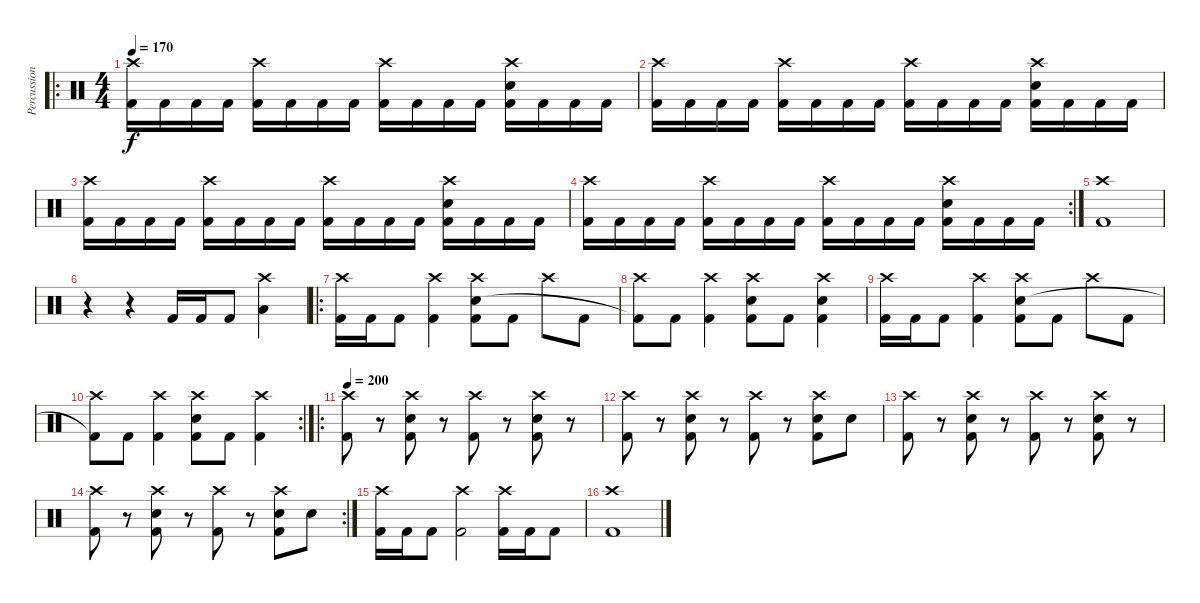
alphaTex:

\track ("Percussion" "Percussion") {instrument percussion}
\staff {score}
\articulation defaults
\ro
\ts (4 4)
\tempo 170
\clef neutral
\ks c
("Crash high (hit)" "Kick (hit) 2").16{dy f} "Kick (hit) 2".16 "Kick (hit) 2".16 "Kick (hit) 2".16 ("Crash high (hit)" "Kick (hit) 2").16 "Kick (hit) 2".16 "Kick (hit) 2".16 "Kick (hit) 2".16 ("Crash high (hit)" "Kick (hit) 2").16 "Kick (hit) 2".16 "Kick (hit) 2".16 "Kick (hit) 2".16 ("Crash high (hit)" "Electric Snare (hit)" "Kick (hit) 2").16 "Kick (hit) 2".16 "Kick (hit) 2".16 "Kick (hit) 2".16 |
("Crash high (hit)" "Kick (hit) 2").16 "Kick (hit) 2".16 "Kick (hit) 2".16 "Kick (hit) 2".16 ("Crash high (hit)" "Kick (hit) 2").16 "Kick (hit) 2".16 "Kick (hit) 2".16 "Kick (hit) 2".16 ("Crash high (hit)" "Kick (hit) 2").16 "Kick (hit) 2".16 "Kick (hit) 2".16 "Kick (hit) 2".16 ("Crash high (hit)" "Electric Snare (hit)" "Kick (hit) 2").16 "Kick (hit) 2".16 "Kick (hit) 2".16 "Kick (hit) 2".16 |
("Crash high (hit)" "Kick (hit) 2").16 "Kick (hit) 2".16 "Kick (hit) 2".16 "Kick (hit) 2".16 ("Crash high (hit)" "Kick (hit) 2").16 "Kick (hit) 2".16 "Kick (hit) 2".16 "Kick (hit) 2".16 ("Crash high (hit)" "Kick (hit) 2").16 "Kick (hit) 2".16 "Kick (hit) 2".16 "Kick (hit) 2".16 ("Crash high (hit)" "Electric Snare (hit)" "Kick (hit) 2").16 "Kick (hit) 2".16 "Kick (hit) 2".16 "Kick (hit) 2".16 |
\rc 2
("Crash high (hit)" "Kick (hit) 2").16 "Kick (hit) 2".16 "Kick (hit) 2".16 "Kick (hit) 2".16 ("Crash high (hit)" "Kick (hit) 2").16 "Kick (hit) 2".16 "Kick (hit) 2".16 "Kick (hit) 2".16 ("Crash high (hit)" "Kick (hit) 2").16 "Kick (hit) 2".16 "Kick (hit) 2".16 "Kick (hit) 2".16 ("Crash high (hit)" "Electric Snare (hit)" "Kick (hit) 2").16 "Kick (hit) 2".16 "Kick (hit) 2".16 "Kick (hit) 2".16 |
("Crash high (hit)" "Kick (hit) 2").1 |
r.4 r.4 "Kick (hit) 2".16 "Kick (hit) 2".16 "Kick (hit) 2".8 ("Crash high (hit)" "Low Floor Tom (hit)").4 |
\ro
("Crash high (hit)" "Kick (hit) 2").16 "Kick (hit) 2".16 "Kick (hit) 2".8 ("Crash high (hit)" "Kick (hit) 2").4 ("Crash high (hit)" "Electric Snare (hit)" "Kick (hit) 2").8 "Kick (hit) 2".8 "Crash high (hit)".8 "Kick (hit) 2".8 |
("Crash high (hit)" "Kick (hit) 2"{t}).8 "Kick (hit) 2".8 ("Crash high (hit)" "Kick (hit) 2").4 ("Crash high (hit)" "Electric Snare (hit)" "Kick (hit) 2").8 "Kick (hit) 2".8 ("Crash high (hit)" "Electric Snare (hit)" "Kick (hit) 2").4 |
("Crash high (hit)" "Kick (hit) 2").16 "Kick (hit) 2".16 "Kick (hit) 2".8 ("Crash high (hit)" "Kick (hit) 2").4 ("Crash high (hit)" "Electric Snare (hit)" "Kick (hit) 2").8 "Kick (hit) 2".8 "Crash high (hit)".8 "Kick (hit) 2".8 |
\rc 2
("Crash high (hit)" "Kick (hit) 2"{t}).8 "Kick (hit) 2".8 ("Crash high (hit)" "Kick (hit) 2").4 ("Crash high (hit)" "Electric Snare (hit)" "Kick (hit) 2").8 "Kick (hit) 2".8 ("Crash high (hit)" "Kick (hit) 2").4 |
\ro
\tempo 200
("Crash high (hit)" "Kick (hit) 2").8 r.8 ("Crash high (hit)" "Electric Snare (hit)" "Kick (hit) 2").8 r.8 ("Crash high (hit)" "Kick (hit) 2").8 r.8 ("Crash high (hit)" "Electric Snare (hit)" "Kick (hit) 2").8 r.8 |
("Crash high (hit)" "Kick (hit) 2").8 r.8 ("Crash high (hit)" "Electric Snare (hit)" "Kick (hit) 2").8 r.8 ("Crash high (hit)" "Kick (hit) 2").8 r.8 ("Crash high (hit)" "Electric Snare (hit)" "Kick (hit) 2").8 "Electric Snare (hit)".8 |
("Crash high (hit)" "Kick (hit) 2").8 r.8 ("Crash high (hit)" "Electric Snare (hit)" "Kick (hit) 2").8 r.8 ("Crash high (hit)" "Kick (hit) 2").8 r.8 ("Crash high (hit)" "Electric Snare (hit)" "Kick (hit) 2").8 r.8 |
\rc 2
("Crash high (hit)" "Kick (hit) 2").8 r.8 ("Crash high (hit)" "Electric Snare (hit)" "Kick (hit) 2").8 r.8 ("Crash high (hit)" "Kick (hit) 2").8 r.8 ("Crash high (hit)" "Electric Snare (hit)" "Kick (hit) 2").8 "Electric Snare (hit)".8 |
("Crash high (hit)" "Kick (hit) 2").16 "Kick (hit) 2".16 "Kick (hit) 2".8 ("Crash high (hit)" "Kick (hit) 2").2 ("Crash high (hit)" "Kick (hit) 2").16 "Kick (hit) 2".16 "Kick (hit) 2".8 |
("Crash high (hit)" "Kick (hit) 2").1
